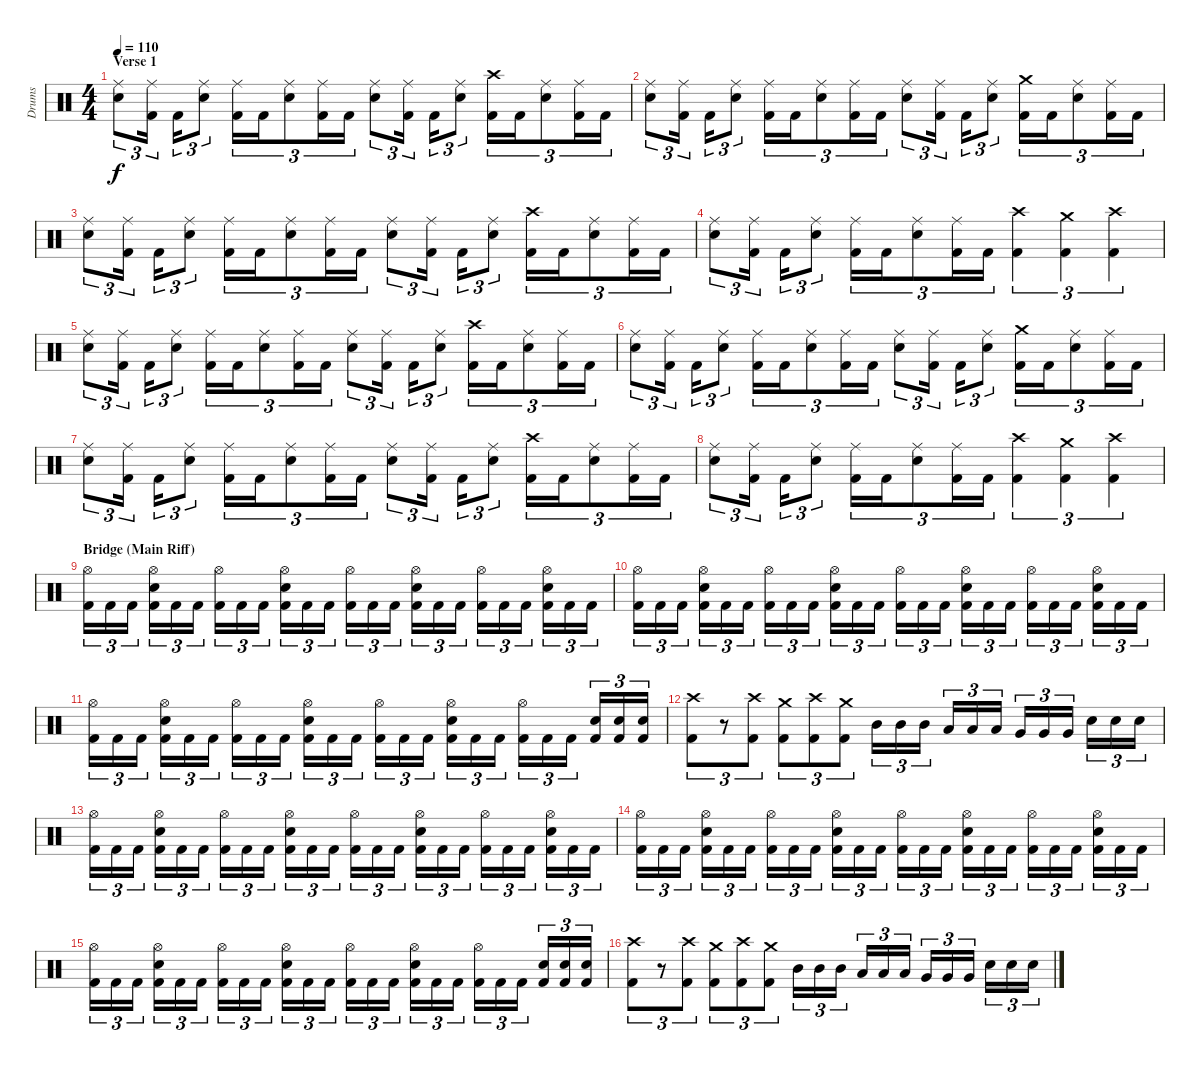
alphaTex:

\track ("Drums" "Drums") {instrument percussion}
\staff {score}
\articulation defaults
\ts (4 4)
\section ("" "Verse 1")
\tempo 110
\clef neutral
\ks c
("Ride (middle)" "Electric Snare (hit)").8{tu (3 2) dy f} ("Ride (middle)" "Kick (hit) 2").16{tu (3 2)} "Kick (hit) 2".16{tu (3 2)} ("Ride (middle)" "Electric Snare (hit)").8{tu (3 2)} ("Ride (middle)" "Kick (hit) 2").16{tu (3 2)} "Kick (hit) 2".16{tu (3 2)} ("Ride (middle)" "Electric Snare (hit)").8{tu (3 2)} ("Ride (middle)" "Kick (hit) 2").16{tu (3 2)} "Kick (hit) 2".16{tu (3 2)} ("Ride (middle)" "Electric Snare (hit)").8{tu (3 2)} ("Ride (middle)" "Kick (hit) 2").16{tu (3 2)} "Kick (hit) 2".16{tu (3 2)} ("Ride (middle)" "Electric Snare (hit)").8{tu (3 2)} ("Crash high (hit)" "Kick (hit) 2").16{tu (3 2)} "Kick (hit) 2".16{tu (3 2)} ("Ride (middle)" "Electric Snare (hit)").8{tu (3 2)} ("Ride (middle)" "Kick (hit) 2").16{tu (3 2)} "Kick (hit) 2".16{tu (3 2)} |
("Ride (middle)" "Electric Snare (hit)").8{tu (3 2)} ("Ride (middle)" "Kick (hit) 2").16{tu (3 2)} "Kick (hit) 2".16{tu (3 2)} ("Ride (middle)" "Electric Snare (hit)").8{tu (3 2)} ("Ride (middle)" "Kick (hit) 2").16{tu (3 2)} "Kick (hit) 2".16{tu (3 2)} ("Ride (middle)" "Electric Snare (hit)").8{tu (3 2)} ("Ride (middle)" "Kick (hit) 2").16{tu (3 2)} "Kick (hit) 2".16{tu (3 2)} ("Ride (middle)" "Electric Snare (hit)").8{tu (3 2)} ("Ride (middle)" "Kick (hit) 2").16{tu (3 2)} "Kick (hit) 2".16{tu (3 2)} ("Ride (middle)" "Electric Snare (hit)").8{tu (3 2)} ("Crash medium (hit)" "Kick (hit) 2").16{tu (3 2)} "Kick (hit) 2".16{tu (3 2)} ("Ride (middle)" "Electric Snare (hit)").8{tu (3 2)} ("Ride (middle)" "Kick (hit) 2").16{tu (3 2)} "Kick (hit) 2".16{tu (3 2)} |
("Ride (middle)" "Electric Snare (hit)").8{tu (3 2)} ("Ride (middle)" "Kick (hit) 2").16{tu (3 2)} "Kick (hit) 2".16{tu (3 2)} ("Ride (middle)" "Electric Snare (hit)").8{tu (3 2)} ("Ride (middle)" "Kick (hit) 2").16{tu (3 2)} "Kick (hit) 2".16{tu (3 2)} ("Ride (middle)" "Electric Snare (hit)").8{tu (3 2)} ("Ride (middle)" "Kick (hit) 2").16{tu (3 2)} "Kick (hit) 2".16{tu (3 2)} ("Ride (middle)" "Electric Snare (hit)").8{tu (3 2)} ("Ride (middle)" "Kick (hit) 2").16{tu (3 2)} "Kick (hit) 2".16{tu (3 2)} ("Ride (middle)" "Electric Snare (hit)").8{tu (3 2)} ("Crash high (hit)" "Kick (hit) 2").16{tu (3 2)} "Kick (hit) 2".16{tu (3 2)} ("Ride (middle)" "Electric Snare (hit)").8{tu (3 2)} ("Ride (middle)" "Kick (hit) 2").16{tu (3 2)} "Kick (hit) 2".16{tu (3 2)} |
("Ride (middle)" "Electric Snare (hit)").8{tu (3 2)} ("Ride (middle)" "Kick (hit) 2").16{tu (3 2)} "Kick (hit) 2".16{tu (3 2)} ("Ride (middle)" "Electric Snare (hit)").8{tu (3 2)} ("Ride (middle)" "Kick (hit) 2").16{tu (3 2)} "Kick (hit) 2".16{tu (3 2)} ("Ride (middle)" "Electric Snare (hit)").8{tu (3 2)} ("Ride (middle)" "Kick (hit) 2").16{tu (3 2)} "Kick (hit) 2".16{tu (3 2)} ("Crash high (hit)" "Kick (hit) 2").4{tu (3 2)} ("Crash medium (hit)" "Kick (hit) 2").4{tu (3 2)} ("Crash high (hit)" "Kick (hit) 2").4{tu (3 2)} |
("Ride (middle)" "Electric Snare (hit)").8{tu (3 2)} ("Ride (middle)" "Kick (hit) 2").16{tu (3 2)} "Kick (hit) 2".16{tu (3 2)} ("Ride (middle)" "Electric Snare (hit)").8{tu (3 2)} ("Ride (middle)" "Kick (hit) 2").16{tu (3 2)} "Kick (hit) 2".16{tu (3 2)} ("Ride (middle)" "Electric Snare (hit)").8{tu (3 2)} ("Ride (middle)" "Kick (hit) 2").16{tu (3 2)} "Kick (hit) 2".16{tu (3 2)} ("Ride (middle)" "Electric Snare (hit)").8{tu (3 2)} ("Ride (middle)" "Kick (hit) 2").16{tu (3 2)} "Kick (hit) 2".16{tu (3 2)} ("Ride (middle)" "Electric Snare (hit)").8{tu (3 2)} ("Crash high (hit)" "Kick (hit) 2").16{tu (3 2)} "Kick (hit) 2".16{tu (3 2)} ("Ride (middle)" "Electric Snare (hit)").8{tu (3 2)} ("Ride (middle)" "Kick (hit) 2").16{tu (3 2)} "Kick (hit) 2".16{tu (3 2)} |
("Ride (middle)" "Electric Snare (hit)").8{tu (3 2)} ("Ride (middle)" "Kick (hit) 2").16{tu (3 2)} "Kick (hit) 2".16{tu (3 2)} ("Ride (middle)" "Electric Snare (hit)").8{tu (3 2)} ("Ride (middle)" "Kick (hit) 2").16{tu (3 2)} "Kick (hit) 2".16{tu (3 2)} ("Ride (middle)" "Electric Snare (hit)").8{tu (3 2)} ("Ride (middle)" "Kick (hit) 2").16{tu (3 2)} "Kick (hit) 2".16{tu (3 2)} ("Ride (middle)" "Electric Snare (hit)").8{tu (3 2)} ("Ride (middle)" "Kick (hit) 2").16{tu (3 2)} "Kick (hit) 2".16{tu (3 2)} ("Ride (middle)" "Electric Snare (hit)").8{tu (3 2)} ("Crash medium (hit)" "Kick (hit) 2").16{tu (3 2)} "Kick (hit) 2".16{tu (3 2)} ("Ride (middle)" "Electric Snare (hit)").8{tu (3 2)} ("Ride (middle)" "Kick (hit) 2").16{tu (3 2)} "Kick (hit) 2".16{tu (3 2)} |
("Ride (middle)" "Electric Snare (hit)").8{tu (3 2)} ("Ride (middle)" "Kick (hit) 2").16{tu (3 2)} "Kick (hit) 2".16{tu (3 2)} ("Ride (middle)" "Electric Snare (hit)").8{tu (3 2)} ("Ride (middle)" "Kick (hit) 2").16{tu (3 2)} "Kick (hit) 2".16{tu (3 2)} ("Ride (middle)" "Electric Snare (hit)").8{tu (3 2)} ("Ride (middle)" "Kick (hit) 2").16{tu (3 2)} "Kick (hit) 2".16{tu (3 2)} ("Ride (middle)" "Electric Snare (hit)").8{tu (3 2)} ("Ride (middle)" "Kick (hit) 2").16{tu (3 2)} "Kick (hit) 2".16{tu (3 2)} ("Ride (middle)" "Electric Snare (hit)").8{tu (3 2)} ("Crash high (hit)" "Kick (hit) 2").16{tu (3 2)} "Kick (hit) 2".16{tu (3 2)} ("Ride (middle)" "Electric Snare (hit)").8{tu (3 2)} ("Ride (middle)" "Kick (hit) 2").16{tu (3 2)} "Kick (hit) 2".16{tu (3 2)} |
("Ride (middle)" "Electric Snare (hit)").8{tu (3 2)} ("Ride (middle)" "Kick (hit) 2").16{tu (3 2)} "Kick (hit) 2".16{tu (3 2)} ("Ride (middle)" "Electric Snare (hit)").8{tu (3 2)} ("Ride (middle)" "Kick (hit) 2").16{tu (3 2)} "Kick (hit) 2".16{tu (3 2)} ("Ride (middle)" "Electric Snare (hit)").8{tu (3 2)} ("Ride (middle)" "Kick (hit) 2").16{tu (3 2)} "Kick (hit) 2".16{tu (3 2)} ("Crash high (hit)" "Kick (hit) 2").4{tu (3 2)} ("Crash medium (hit)" "Kick (hit) 2").4{tu (3 2)} ("Crash high (hit)" "Kick (hit) 2").4{tu (3 2)} |
\section ("" "Bridge (Main Riff)")
("Hi-Hat (open)" "Kick (hit) 2").16{tu (3 2)} "Kick (hit) 2".16{tu (3 2)} "Kick (hit) 2".16{tu (3 2)} ("Hi-Hat (open)" "Electric Snare (hit)" "Kick (hit) 2").16{tu (3 2)} "Kick (hit) 2".16{tu (3 2)} "Kick (hit) 2".16{tu (3 2)} ("Hi-Hat (open)" "Kick (hit) 2").16{tu (3 2)} "Kick (hit) 2".16{tu (3 2)} "Kick (hit) 2".16{tu (3 2)} ("Hi-Hat (open)" "Electric Snare (hit)" "Kick (hit) 2").16{tu (3 2)} "Kick (hit) 2".16{tu (3 2)} "Kick (hit) 2".16{tu (3 2)} ("Hi-Hat (open)" "Kick (hit) 2").16{tu (3 2)} "Kick (hit) 2".16{tu (3 2)} "Kick (hit) 2".16{tu (3 2)} ("Hi-Hat (open)" "Electric Snare (hit)" "Kick (hit) 2").16{tu (3 2)} "Kick (hit) 2".16{tu (3 2)} "Kick (hit) 2".16{tu (3 2)} ("Hi-Hat (open)" "Kick (hit) 2").16{tu (3 2)} "Kick (hit) 2".16{tu (3 2)} "Kick (hit) 2".16{tu (3 2)} ("Hi-Hat (open)" "Electric Snare (hit)" "Kick (hit) 2").16{tu (3 2)} "Kick (hit) 2".16{tu (3 2)} "Kick (hit) 2".16{tu (3 2)} |
("Hi-Hat (open)" "Kick (hit) 2").16{tu (3 2)} "Kick (hit) 2".16{tu (3 2)} "Kick (hit) 2".16{tu (3 2)} ("Hi-Hat (open)" "Electric Snare (hit)" "Kick (hit) 2").16{tu (3 2)} "Kick (hit) 2".16{tu (3 2)} "Kick (hit) 2".16{tu (3 2)} ("Hi-Hat (open)" "Kick (hit) 2").16{tu (3 2)} "Kick (hit) 2".16{tu (3 2)} "Kick (hit) 2".16{tu (3 2)} ("Hi-Hat (open)" "Electric Snare (hit)" "Kick (hit) 2").16{tu (3 2)} "Kick (hit) 2".16{tu (3 2)} "Kick (hit) 2".16{tu (3 2)} ("Hi-Hat (open)" "Kick (hit) 2").16{tu (3 2)} "Kick (hit) 2".16{tu (3 2)} "Kick (hit) 2".16{tu (3 2)} ("Hi-Hat (open)" "Electric Snare (hit)" "Kick (hit) 2").16{tu (3 2)} "Kick (hit) 2".16{tu (3 2)} "Kick (hit) 2".16{tu (3 2)} ("Hi-Hat (open)" "Kick (hit) 2").16{tu (3 2)} "Kick (hit) 2".16{tu (3 2)} "Kick (hit) 2".16{tu (3 2)} ("Hi-Hat (open)" "Electric Snare (hit)" "Kick (hit) 2").16{tu (3 2)} "Kick (hit) 2".16{tu (3 2)} "Kick (hit) 2".16{tu (3 2)} |
("Hi-Hat (open)" "Kick (hit) 2").16{tu (3 2)} "Kick (hit) 2".16{tu (3 2)} "Kick (hit) 2".16{tu (3 2)} ("Hi-Hat (open)" "Electric Snare (hit)" "Kick (hit) 2").16{tu (3 2)} "Kick (hit) 2".16{tu (3 2)} "Kick (hit) 2".16{tu (3 2)} ("Hi-Hat (open)" "Kick (hit) 2").16{tu (3 2)} "Kick (hit) 2".16{tu (3 2)} "Kick (hit) 2".16{tu (3 2)} ("Hi-Hat (open)" "Electric Snare (hit)" "Kick (hit) 2").16{tu (3 2)} "Kick (hit) 2".16{tu (3 2)} "Kick (hit) 2".16{tu (3 2)} ("Hi-Hat (open)" "Kick (hit) 2").16{tu (3 2)} "Kick (hit) 2".16{tu (3 2)} "Kick (hit) 2".16{tu (3 2)} ("Hi-Hat (open)" "Electric Snare (hit)" "Kick (hit) 2").16{tu (3 2)} "Kick (hit) 2".16{tu (3 2)} "Kick (hit) 2".16{tu (3 2)} ("Hi-Hat (open)" "Kick (hit) 2").16{tu (3 2)} "Kick (hit) 2".16{tu (3 2)} "Kick (hit) 2".16{tu (3 2)} ("Electric Snare (hit)" "Kick (hit) 2").16{tu (3 2)} ("Electric Snare (hit)" "Kick (hit) 2").16{tu (3 2)} ("Electric Snare (hit)" "Kick (hit) 2").16{tu (3 2)} |
("Crash high (hit)" "Kick (hit) 2").8{tu (3 2)} r.8{tu (3 2)} ("Crash high (hit)" "Kick (hit) 2").8{tu (3 2)} ("Crash medium (hit)" "Kick (hit) 2").8{tu (3 2)} ("Crash high (hit)" "Kick (hit) 2").8{tu (3 2)} ("Crash medium (hit)" "Kick (hit) 2").8{tu (3 2)} "Mid Tom (hit)".16{tu (3 2)} "Mid Tom (hit)".16{tu (3 2)} "Mid Tom (hit)".16{tu (3 2)} "Low Tom (hit)".16{tu (3 2)} "Low Tom (hit)".16{tu (3 2)} "Low Tom (hit)".16{tu (3 2)} "Very Low Tom (hit)".16{tu (3 2)} "Very Low Tom (hit)".16{tu (3 2)} "Very Low Tom (hit)".16{tu (3 2)} "Snare (hit) 2".16{tu (3 2)} "Snare (hit) 2".16{tu (3 2)} "Snare (hit) 2".16{tu (3 2)} |
("Hi-Hat (open)" "Kick (hit) 2").16{tu (3 2)} "Kick (hit) 2".16{tu (3 2)} "Kick (hit) 2".16{tu (3 2)} ("Hi-Hat (open)" "Electric Snare (hit)" "Kick (hit) 2").16{tu (3 2)} "Kick (hit) 2".16{tu (3 2)} "Kick (hit) 2".16{tu (3 2)} ("Hi-Hat (open)" "Kick (hit) 2").16{tu (3 2)} "Kick (hit) 2".16{tu (3 2)} "Kick (hit) 2".16{tu (3 2)} ("Hi-Hat (open)" "Electric Snare (hit)" "Kick (hit) 2").16{tu (3 2)} "Kick (hit) 2".16{tu (3 2)} "Kick (hit) 2".16{tu (3 2)} ("Hi-Hat (open)" "Kick (hit) 2").16{tu (3 2)} "Kick (hit) 2".16{tu (3 2)} "Kick (hit) 2".16{tu (3 2)} ("Hi-Hat (open)" "Electric Snare (hit)" "Kick (hit) 2").16{tu (3 2)} "Kick (hit) 2".16{tu (3 2)} "Kick (hit) 2".16{tu (3 2)} ("Hi-Hat (open)" "Kick (hit) 2").16{tu (3 2)} "Kick (hit) 2".16{tu (3 2)} "Kick (hit) 2".16{tu (3 2)} ("Hi-Hat (open)" "Electric Snare (hit)" "Kick (hit) 2").16{tu (3 2)} "Kick (hit) 2".16{tu (3 2)} "Kick (hit) 2".16{tu (3 2)} |
("Hi-Hat (open)" "Kick (hit) 2").16{tu (3 2)} "Kick (hit) 2".16{tu (3 2)} "Kick (hit) 2".16{tu (3 2)} ("Hi-Hat (open)" "Electric Snare (hit)" "Kick (hit) 2").16{tu (3 2)} "Kick (hit) 2".16{tu (3 2)} "Kick (hit) 2".16{tu (3 2)} ("Hi-Hat (open)" "Kick (hit) 2").16{tu (3 2)} "Kick (hit) 2".16{tu (3 2)} "Kick (hit) 2".16{tu (3 2)} ("Hi-Hat (open)" "Electric Snare (hit)" "Kick (hit) 2").16{tu (3 2)} "Kick (hit) 2".16{tu (3 2)} "Kick (hit) 2".16{tu (3 2)} ("Hi-Hat (open)" "Kick (hit) 2").16{tu (3 2)} "Kick (hit) 2".16{tu (3 2)} "Kick (hit) 2".16{tu (3 2)} ("Hi-Hat (open)" "Electric Snare (hit)" "Kick (hit) 2").16{tu (3 2)} "Kick (hit) 2".16{tu (3 2)} "Kick (hit) 2".16{tu (3 2)} ("Hi-Hat (open)" "Kick (hit) 2").16{tu (3 2)} "Kick (hit) 2".16{tu (3 2)} "Kick (hit) 2".16{tu (3 2)} ("Hi-Hat (open)" "Electric Snare (hit)" "Kick (hit) 2").16{tu (3 2)} "Kick (hit) 2".16{tu (3 2)} "Kick (hit) 2".16{tu (3 2)} |
("Hi-Hat (open)" "Kick (hit) 2").16{tu (3 2)} "Kick (hit) 2".16{tu (3 2)} "Kick (hit) 2".16{tu (3 2)} ("Hi-Hat (open)" "Electric Snare (hit)" "Kick (hit) 2").16{tu (3 2)} "Kick (hit) 2".16{tu (3 2)} "Kick (hit) 2".16{tu (3 2)} ("Hi-Hat (open)" "Kick (hit) 2").16{tu (3 2)} "Kick (hit) 2".16{tu (3 2)} "Kick (hit) 2".16{tu (3 2)} ("Hi-Hat (open)" "Electric Snare (hit)" "Kick (hit) 2").16{tu (3 2)} "Kick (hit) 2".16{tu (3 2)} "Kick (hit) 2".16{tu (3 2)} ("Hi-Hat (open)" "Kick (hit) 2").16{tu (3 2)} "Kick (hit) 2".16{tu (3 2)} "Kick (hit) 2".16{tu (3 2)} ("Hi-Hat (open)" "Electric Snare (hit)" "Kick (hit) 2").16{tu (3 2)} "Kick (hit) 2".16{tu (3 2)} "Kick (hit) 2".16{tu (3 2)} ("Hi-Hat (open)" "Kick (hit) 2").16{tu (3 2)} "Kick (hit) 2".16{tu (3 2)} "Kick (hit) 2".16{tu (3 2)} ("Electric Snare (hit)" "Kick (hit) 2").16{tu (3 2)} ("Electric Snare (hit)" "Kick (hit) 2").16{tu (3 2)} ("Electric Snare (hit)" "Kick (hit) 2").16{tu (3 2)} |
("Crash high (hit)" "Kick (hit) 2").8{tu (3 2)} r.8{tu (3 2)} ("Crash high (hit)" "Kick (hit) 2").8{tu (3 2)} ("Crash medium (hit)" "Kick (hit) 2").8{tu (3 2)} ("Crash high (hit)" "Kick (hit) 2").8{tu (3 2)} ("Crash medium (hit)" "Kick (hit) 2").8{tu (3 2)} "Mid Tom (hit)".16{tu (3 2)} "Mid Tom (hit)".16{tu (3 2)} "Mid Tom (hit)".16{tu (3 2)} "Low Tom (hit)".16{tu (3 2)} "Low Tom (hit)".16{tu (3 2)} "Low Tom (hit)".16{tu (3 2)} "Very Low Tom (hit)".16{tu (3 2)} "Very Low Tom (hit)".16{tu (3 2)} "Very Low Tom (hit)".16{tu (3 2)} "Snare (hit) 2".16{tu (3 2)} "Snare (hit) 2".16{tu (3 2)} "Snare (hit) 2".16{tu (3 2)}
